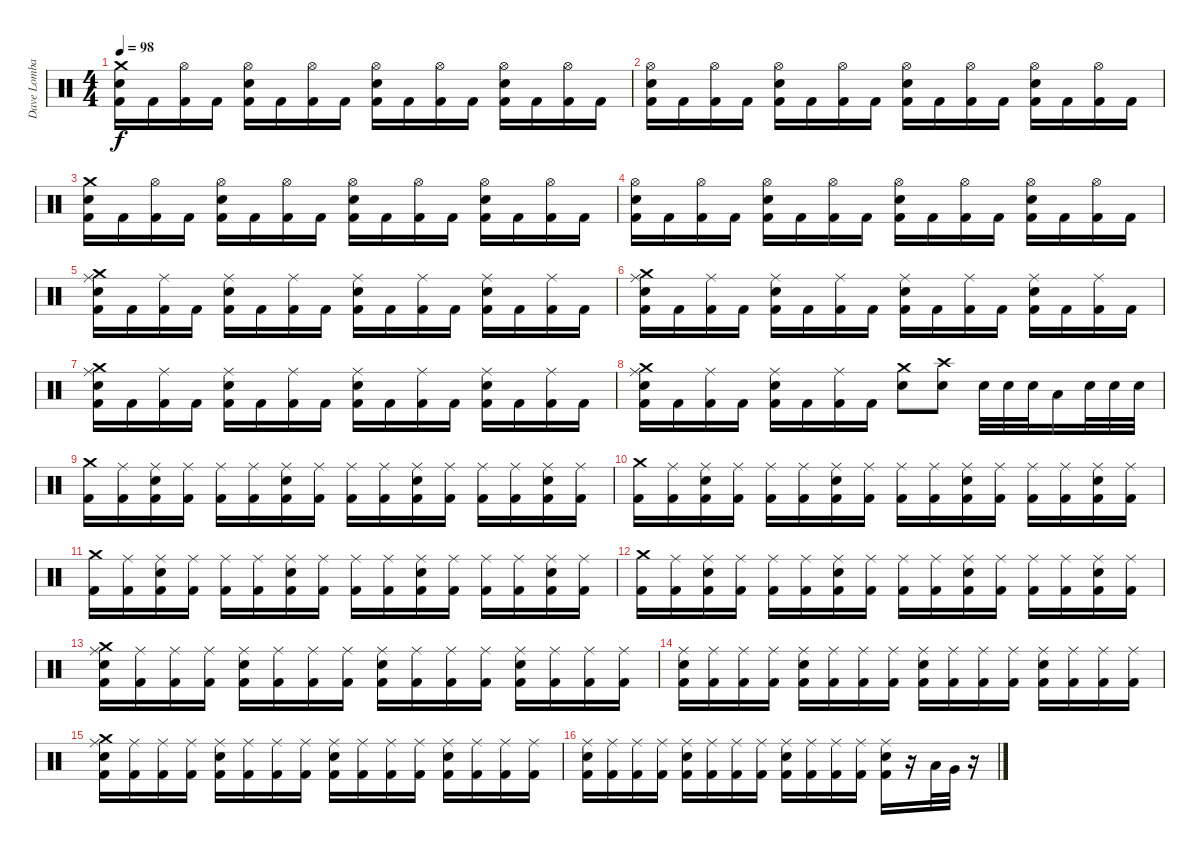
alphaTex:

\track ("Dave Lombardo" "Dave Lomba") {instrument percussion}
\staff {score}
\articulation defaults
\ts (4 4)
\tempo 98
\clef neutral
\ks c
("Electric Snare (hit)" "Crash medium (hit)" "Kick (hit) 2").16{dy f} "Kick (hit) 2".16 ("Hi-Hat (open)" "Kick (hit) 2").16 "Kick (hit) 2".16 ("Electric Snare (hit)" "Hi-Hat (open)" "Kick (hit) 2").16 "Kick (hit) 2".16 ("Hi-Hat (open)" "Kick (hit) 2").16 "Kick (hit) 2".16 ("Electric Snare (hit)" "Hi-Hat (open)" "Kick (hit) 2").16 "Kick (hit) 2".16 ("Hi-Hat (open)" "Kick (hit) 2").16 "Kick (hit) 2".16 ("Electric Snare (hit)" "Hi-Hat (open)" "Kick (hit) 2").16 "Kick (hit) 2".16 ("Hi-Hat (open)" "Kick (hit) 2").16 "Kick (hit) 2".16 |
("Electric Snare (hit)" "Hi-Hat (open)" "Kick (hit) 2").16 "Kick (hit) 2".16 ("Hi-Hat (open)" "Kick (hit) 2").16 "Kick (hit) 2".16 ("Electric Snare (hit)" "Hi-Hat (open)" "Kick (hit) 2").16 "Kick (hit) 2".16 ("Hi-Hat (open)" "Kick (hit) 2").16 "Kick (hit) 2".16 ("Electric Snare (hit)" "Hi-Hat (open)" "Kick (hit) 2").16 "Kick (hit) 2".16 ("Hi-Hat (open)" "Kick (hit) 2").16 "Kick (hit) 2".16 ("Electric Snare (hit)" "Hi-Hat (open)" "Kick (hit) 2").16 "Kick (hit) 2".16 ("Hi-Hat (open)" "Kick (hit) 2").16 "Kick (hit) 2".16 |
("Electric Snare (hit)" "Crash medium (hit)" "Kick (hit) 2").16 "Kick (hit) 2".16 ("Hi-Hat (open)" "Kick (hit) 2").16 "Kick (hit) 2".16 ("Electric Snare (hit)" "Hi-Hat (open)" "Kick (hit) 2").16 "Kick (hit) 2".16 ("Hi-Hat (open)" "Kick (hit) 2").16 "Kick (hit) 2".16 ("Electric Snare (hit)" "Hi-Hat (open)" "Kick (hit) 2").16 "Kick (hit) 2".16 ("Hi-Hat (open)" "Kick (hit) 2").16 "Kick (hit) 2".16 ("Electric Snare (hit)" "Hi-Hat (open)" "Kick (hit) 2").16 "Kick (hit) 2".16 ("Hi-Hat (open)" "Kick (hit) 2").16 "Kick (hit) 2".16 |
("Electric Snare (hit)" "Hi-Hat (open)" "Kick (hit) 2").16 "Kick (hit) 2".16 ("Hi-Hat (open)" "Kick (hit) 2").16 "Kick (hit) 2".16 ("Electric Snare (hit)" "Hi-Hat (open)" "Kick (hit) 2").16 "Kick (hit) 2".16 ("Hi-Hat (open)" "Kick (hit) 2").16 "Kick (hit) 2".16 ("Electric Snare (hit)" "Hi-Hat (open)" "Kick (hit) 2").16 "Kick (hit) 2".16 ("Hi-Hat (open)" "Kick (hit) 2").16 "Kick (hit) 2".16 ("Electric Snare (hit)" "Hi-Hat (open)" "Kick (hit) 2").16 "Kick (hit) 2".16 ("Hi-Hat (open)" "Kick (hit) 2").16 "Kick (hit) 2".16 |
("Crash medium (hit)" "Electric Snare (hit)" "Ride (middle)" "Kick (hit) 2").16 "Kick (hit) 2".16 ("Ride (middle)" "Kick (hit) 2").16 "Kick (hit) 2".16 ("Electric Snare (hit)" "Ride (middle)" "Kick (hit) 2").16 "Kick (hit) 2".16 ("Ride (middle)" "Kick (hit) 2").16 "Kick (hit) 2".16 ("Electric Snare (hit)" "Ride (middle)" "Kick (hit) 2").16 "Kick (hit) 2".16 ("Ride (middle)" "Kick (hit) 2").16 "Kick (hit) 2".16 ("Electric Snare (hit)" "Ride (middle)" "Kick (hit) 2").16 "Kick (hit) 2".16 ("Ride (middle)" "Kick (hit) 2").16 "Kick (hit) 2".16 |
("Crash medium (hit)" "Electric Snare (hit)" "Ride (middle)" "Kick (hit) 2").16 "Kick (hit) 2".16 ("Ride (middle)" "Kick (hit) 2").16 "Kick (hit) 2".16 ("Electric Snare (hit)" "Ride (middle)" "Kick (hit) 2").16 "Kick (hit) 2".16 ("Ride (middle)" "Kick (hit) 2").16 "Kick (hit) 2".16 ("Electric Snare (hit)" "Ride (middle)" "Kick (hit) 2").16 "Kick (hit) 2".16 ("Ride (middle)" "Kick (hit) 2").16 "Kick (hit) 2".16 ("Electric Snare (hit)" "Ride (middle)" "Kick (hit) 2").16 "Kick (hit) 2".16 ("Ride (middle)" "Kick (hit) 2").16 "Kick (hit) 2".16 |
("Crash medium (hit)" "Electric Snare (hit)" "Ride (middle)" "Kick (hit) 2").16 "Kick (hit) 2".16 ("Ride (middle)" "Kick (hit) 2").16 "Kick (hit) 2".16 ("Electric Snare (hit)" "Ride (middle)" "Kick (hit) 2").16 "Kick (hit) 2".16 ("Ride (middle)" "Kick (hit) 2").16 "Kick (hit) 2".16 ("Electric Snare (hit)" "Ride (middle)" "Kick (hit) 2").16 "Kick (hit) 2".16 ("Ride (middle)" "Kick (hit) 2").16 "Kick (hit) 2".16 ("Electric Snare (hit)" "Ride (middle)" "Kick (hit) 2").16 "Kick (hit) 2".16 ("Ride (middle)" "Kick (hit) 2").16 "Kick (hit) 2".16 |
("Crash medium (hit)" "Electric Snare (hit)" "Ride (middle)" "Kick (hit) 2").16 "Kick (hit) 2".16 ("Ride (middle)" "Kick (hit) 2").16 "Kick (hit) 2".16 ("Electric Snare (hit)" "Ride (middle)" "Kick (hit) 2").16 "Kick (hit) 2".16 ("Ride (middle)" "Kick (hit) 2").16 "Kick (hit) 2".16 ("Electric Snare (hit)" "Crash medium (hit)").8 ("Crash high (hit)" "Electric Snare (hit)").8 "Electric Snare (hit)".32 "Electric Snare (hit)".32 "Electric Snare (hit)".32 "Low Tom (hit)".16 "Electric Snare (hit)".32 "Electric Snare (hit)".32 "Electric Snare (hit)".32 |
("Crash medium (hit)" "Kick (hit) 2").16 ("Ride (middle)" "Kick (hit) 2").16 ("Electric Snare (hit)" "Ride (middle)" "Kick (hit) 2").16 ("Ride (middle)" "Kick (hit) 2").16 ("Ride (middle)" "Kick (hit) 2").16 ("Ride (middle)" "Kick (hit) 2").16 ("Electric Snare (hit)" "Ride (middle)" "Kick (hit) 2").16 ("Ride (middle)" "Kick (hit) 2").16 ("Ride (middle)" "Kick (hit) 2").16 ("Ride (middle)" "Kick (hit) 2").16 ("Electric Snare (hit)" "Ride (middle)" "Kick (hit) 2").16 ("Ride (middle)" "Kick (hit) 2").16 ("Ride (middle)" "Kick (hit) 2").16 ("Ride (middle)" "Kick (hit) 2").16 ("Electric Snare (hit)" "Ride (middle)" "Kick (hit) 2").16 ("Ride (middle)" "Kick (hit) 2").16 |
("Crash medium (hit)" "Kick (hit) 2").16 ("Ride (middle)" "Kick (hit) 2").16 ("Electric Snare (hit)" "Ride (middle)" "Kick (hit) 2").16 ("Ride (middle)" "Kick (hit) 2").16 ("Ride (middle)" "Kick (hit) 2").16 ("Ride (middle)" "Kick (hit) 2").16 ("Electric Snare (hit)" "Ride (middle)" "Kick (hit) 2").16 ("Ride (middle)" "Kick (hit) 2").16 ("Ride (middle)" "Kick (hit) 2").16 ("Ride (middle)" "Kick (hit) 2").16 ("Electric Snare (hit)" "Ride (middle)" "Kick (hit) 2").16 ("Ride (middle)" "Kick (hit) 2").16 ("Ride (middle)" "Kick (hit) 2").16 ("Ride (middle)" "Kick (hit) 2").16 ("Electric Snare (hit)" "Ride (middle)" "Kick (hit) 2").16 ("Ride (middle)" "Kick (hit) 2").16 |
("Crash medium (hit)" "Kick (hit) 2").16 ("Ride (middle)" "Kick (hit) 2").16 ("Electric Snare (hit)" "Ride (middle)" "Kick (hit) 2").16 ("Ride (middle)" "Kick (hit) 2").16 ("Ride (middle)" "Kick (hit) 2").16 ("Ride (middle)" "Kick (hit) 2").16 ("Electric Snare (hit)" "Ride (middle)" "Kick (hit) 2").16 ("Ride (middle)" "Kick (hit) 2").16 ("Ride (middle)" "Kick (hit) 2").16 ("Ride (middle)" "Kick (hit) 2").16 ("Electric Snare (hit)" "Ride (middle)" "Kick (hit) 2").16 ("Ride (middle)" "Kick (hit) 2").16 ("Ride (middle)" "Kick (hit) 2").16 ("Ride (middle)" "Kick (hit) 2").16 ("Electric Snare (hit)" "Ride (middle)" "Kick (hit) 2").16 ("Ride (middle)" "Kick (hit) 2").16 |
("Crash medium (hit)" "Kick (hit) 2").16 ("Ride (middle)" "Kick (hit) 2").16 ("Electric Snare (hit)" "Ride (middle)" "Kick (hit) 2").16 ("Ride (middle)" "Kick (hit) 2").16 ("Ride (middle)" "Kick (hit) 2").16 ("Ride (middle)" "Kick (hit) 2").16 ("Electric Snare (hit)" "Ride (middle)" "Kick (hit) 2").16 ("Ride (middle)" "Kick (hit) 2").16 ("Ride (middle)" "Kick (hit) 2").16 ("Ride (middle)" "Kick (hit) 2").16 ("Electric Snare (hit)" "Ride (middle)" "Kick (hit) 2").16 ("Ride (middle)" "Kick (hit) 2").16 ("Ride (middle)" "Kick (hit) 2").16 ("Ride (middle)" "Kick (hit) 2").16 ("Electric Snare (hit)" "Ride (middle)" "Kick (hit) 2").16 ("Ride (middle)" "Kick (hit) 2").16 |
("Crash medium (hit)" "Electric Snare (hit)" "Ride (middle)" "Kick (hit) 2").16 ("Ride (middle)" "Kick (hit) 2").16 ("Ride (middle)" "Kick (hit) 2").16 ("Ride (middle)" "Kick (hit) 2").16 ("Electric Snare (hit)" "Ride (middle)" "Kick (hit) 2").16 ("Ride (middle)" "Kick (hit) 2").16 ("Ride (middle)" "Kick (hit) 2").16 ("Ride (middle)" "Kick (hit) 2").16 ("Electric Snare (hit)" "Ride (middle)" "Kick (hit) 2").16 ("Ride (middle)" "Kick (hit) 2").16 ("Ride (middle)" "Kick (hit) 2").16 ("Ride (middle)" "Kick (hit) 2").16 ("Electric Snare (hit)" "Ride (middle)" "Kick (hit) 2").16 ("Ride (middle)" "Kick (hit) 2").16 ("Ride (middle)" "Kick (hit) 2").16 ("Ride (middle)" "Kick (hit) 2").16 |
("Electric Snare (hit)" "Ride (middle)" "Kick (hit) 2").16 ("Ride (middle)" "Kick (hit) 2").16 ("Ride (middle)" "Kick (hit) 2").16 ("Ride (middle)" "Kick (hit) 2").16 ("Electric Snare (hit)" "Ride (middle)" "Kick (hit) 2").16 ("Ride (middle)" "Kick (hit) 2").16 ("Ride (middle)" "Kick (hit) 2").16 ("Ride (middle)" "Kick (hit) 2").16 ("Electric Snare (hit)" "Ride (middle)" "Kick (hit) 2").16 ("Ride (middle)" "Kick (hit) 2").16 ("Ride (middle)" "Kick (hit) 2").16 ("Ride (middle)" "Kick (hit) 2").16 ("Electric Snare (hit)" "Ride (middle)" "Kick (hit) 2").16 ("Ride (middle)" "Kick (hit) 2").16 ("Ride (middle)" "Kick (hit) 2").16 ("Ride (middle)" "Kick (hit) 2").16 |
("Crash medium (hit)" "Electric Snare (hit)" "Ride (middle)" "Kick (hit) 2").16 ("Ride (middle)" "Kick (hit) 2").16 ("Ride (middle)" "Kick (hit) 2").16 ("Ride (middle)" "Kick (hit) 2").16 ("Electric Snare (hit)" "Ride (middle)" "Kick (hit) 2").16 ("Ride (middle)" "Kick (hit) 2").16 ("Ride (middle)" "Kick (hit) 2").16 ("Ride (middle)" "Kick (hit) 2").16 ("Electric Snare (hit)" "Ride (middle)" "Kick (hit) 2").16 ("Ride (middle)" "Kick (hit) 2").16 ("Ride (middle)" "Kick (hit) 2").16 ("Ride (middle)" "Kick (hit) 2").16 ("Electric Snare (hit)" "Ride (middle)" "Kick (hit) 2").16 ("Ride (middle)" "Kick (hit) 2").16 ("Ride (middle)" "Kick (hit) 2").16 ("Ride (middle)" "Kick (hit) 2").16 |
("Electric Snare (hit)" "Ride (middle)" "Kick (hit) 2").16 ("Ride (middle)" "Kick (hit) 2").16 ("Ride (middle)" "Kick (hit) 2").16 ("Ride (middle)" "Kick (hit) 2").16 ("Electric Snare (hit)" "Ride (middle)" "Kick (hit) 2").16 ("Ride (middle)" "Kick (hit) 2").16 ("Ride (middle)" "Kick (hit) 2").16 ("Ride (middle)" "Kick (hit) 2").16 ("Electric Snare (hit)" "Ride (middle)" "Kick (hit) 2").16 ("Ride (middle)" "Kick (hit) 2").16 ("Ride (middle)" "Kick (hit) 2").16 ("Ride (middle)" "Kick (hit) 2").16 ("Electric Snare (hit)" "Ride (middle)" "Kick (hit) 2").16 r.16 "Low Tom (hit)".32 "Very Low Tom (hit)".32 r.16
